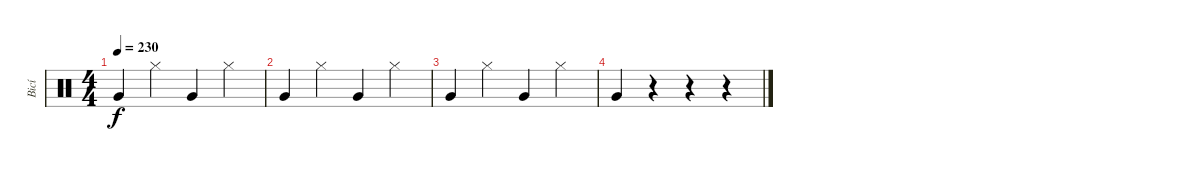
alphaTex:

\track ("Bicí" "Bicí") {instrument percussion}
\staff {score}
\articulation defaults
\ts (4 4)
\tempo 230
\clef neutral
\ks c "Very Low Tom (hit)".4{dy f} "Hi-Hat (closed)".4 "Very Low Tom (hit)".4 "Hi-Hat (closed)".4
|
"Very Low Tom (hit)".4 "Hi-Hat (closed)".4 "Very Low Tom (hit)".4 "Hi-Hat (closed)".4 |
"Very Low Tom (hit)".4 "Hi-Hat (closed)".4 "Very Low Tom (hit)".4 "Hi-Hat (closed)".4 |
"Very Low Tom (hit)".4 r.4 r.4 r.4
